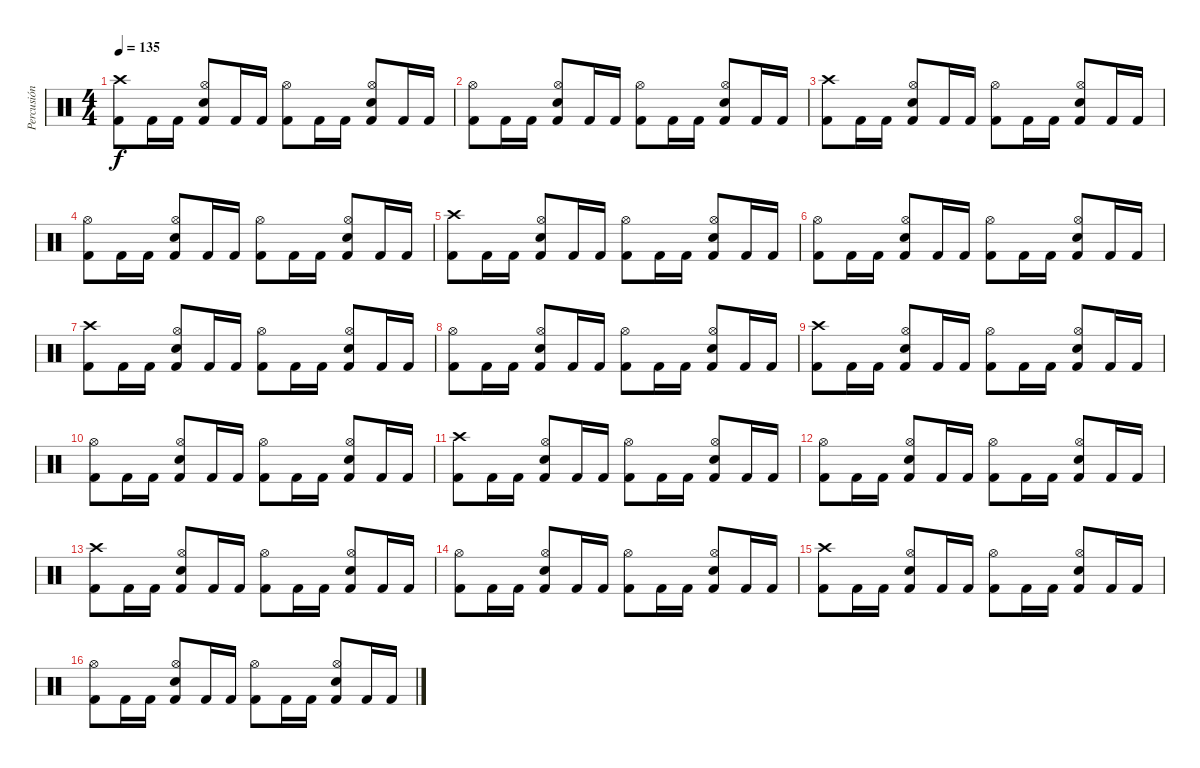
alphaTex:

\track ("Percusión" "Percusión") {instrument percussion}
\staff {score}
\articulation defaults
\ts (4 4)
\tempo 135
\clef neutral
\ks c
("Kick (hit) 2" "Crash high (hit)").8{dy f} "Kick (hit) 2".16 "Kick (hit) 2".16 ("Kick (hit) 2" "Hi-Hat (open)" "Snare (hit) 2").8 "Kick (hit) 2".16 "Kick (hit) 2".16 ("Kick (hit) 2" "Hi-Hat (open)").8 "Kick (hit) 2".16 "Kick (hit) 2".16 ("Kick (hit) 2" "Hi-Hat (open)" "Snare (hit) 2").8 "Kick (hit) 2".16 "Kick (hit) 2".16 |
("Kick (hit) 2" "Hi-Hat (open)").8 "Kick (hit) 2".16 "Kick (hit) 2".16 ("Kick (hit) 2" "Hi-Hat (open)" "Snare (hit) 2").8 "Kick (hit) 2".16 "Kick (hit) 2".16 ("Kick (hit) 2" "Hi-Hat (open)").8 "Kick (hit) 2".16 "Kick (hit) 2".16 ("Kick (hit) 2" "Hi-Hat (open)" "Snare (hit) 2").8 "Kick (hit) 2".16 "Kick (hit) 2".16 |
("Kick (hit) 2" "Crash high (hit)").8 "Kick (hit) 2".16 "Kick (hit) 2".16 ("Kick (hit) 2" "Hi-Hat (open)" "Snare (hit) 2").8 "Kick (hit) 2".16 "Kick (hit) 2".16 ("Kick (hit) 2" "Hi-Hat (open)").8 "Kick (hit) 2".16 "Kick (hit) 2".16 ("Kick (hit) 2" "Hi-Hat (open)" "Snare (hit) 2").8 "Kick (hit) 2".16 "Kick (hit) 2".16 |
("Kick (hit) 2" "Hi-Hat (open)").8 "Kick (hit) 2".16 "Kick (hit) 2".16 ("Kick (hit) 2" "Hi-Hat (open)" "Snare (hit) 2").8 "Kick (hit) 2".16 "Kick (hit) 2".16 ("Kick (hit) 2" "Hi-Hat (open)").8 "Kick (hit) 2".16 "Kick (hit) 2".16 ("Kick (hit) 2" "Hi-Hat (open)" "Snare (hit) 2").8 "Kick (hit) 2".16 "Kick (hit) 2".16 |
("Kick (hit) 2" "Crash high (hit)").8 "Kick (hit) 2".16 "Kick (hit) 2".16 ("Kick (hit) 2" "Hi-Hat (open)" "Snare (hit) 2").8 "Kick (hit) 2".16 "Kick (hit) 2".16 ("Kick (hit) 2" "Hi-Hat (open)").8 "Kick (hit) 2".16 "Kick (hit) 2".16 ("Kick (hit) 2" "Hi-Hat (open)" "Snare (hit) 2").8 "Kick (hit) 2".16 "Kick (hit) 2".16 |
("Kick (hit) 2" "Hi-Hat (open)").8 "Kick (hit) 2".16 "Kick (hit) 2".16 ("Kick (hit) 2" "Hi-Hat (open)" "Snare (hit) 2").8 "Kick (hit) 2".16 "Kick (hit) 2".16 ("Kick (hit) 2" "Hi-Hat (open)").8 "Kick (hit) 2".16 "Kick (hit) 2".16 ("Kick (hit) 2" "Hi-Hat (open)" "Snare (hit) 2").8 "Kick (hit) 2".16 "Kick (hit) 2".16 |
("Kick (hit) 2" "Crash high (hit)").8 "Kick (hit) 2".16 "Kick (hit) 2".16 ("Kick (hit) 2" "Hi-Hat (open)" "Snare (hit) 2").8 "Kick (hit) 2".16 "Kick (hit) 2".16 ("Kick (hit) 2" "Hi-Hat (open)").8 "Kick (hit) 2".16 "Kick (hit) 2".16 ("Kick (hit) 2" "Hi-Hat (open)" "Snare (hit) 2").8 "Kick (hit) 2".16 "Kick (hit) 2".16 |
("Kick (hit) 2" "Hi-Hat (open)").8 "Kick (hit) 2".16 "Kick (hit) 2".16 ("Kick (hit) 2" "Hi-Hat (open)" "Snare (hit) 2").8 "Kick (hit) 2".16 "Kick (hit) 2".16 ("Kick (hit) 2" "Hi-Hat (open)").8 "Kick (hit) 2".16 "Kick (hit) 2".16 ("Kick (hit) 2" "Hi-Hat (open)" "Snare (hit) 2").8 "Kick (hit) 2".16 "Kick (hit) 2".16 |
("Kick (hit) 2" "Crash high (hit)").8 "Kick (hit) 2".16 "Kick (hit) 2".16 ("Kick (hit) 2" "Hi-Hat (open)" "Snare (hit) 2").8 "Kick (hit) 2".16 "Kick (hit) 2".16 ("Kick (hit) 2" "Hi-Hat (open)").8 "Kick (hit) 2".16 "Kick (hit) 2".16 ("Kick (hit) 2" "Hi-Hat (open)" "Snare (hit) 2").8 "Kick (hit) 2".16 "Kick (hit) 2".16 |
("Kick (hit) 2" "Hi-Hat (open)").8 "Kick (hit) 2".16 "Kick (hit) 2".16 ("Kick (hit) 2" "Hi-Hat (open)" "Snare (hit) 2").8 "Kick (hit) 2".16 "Kick (hit) 2".16 ("Kick (hit) 2" "Hi-Hat (open)").8 "Kick (hit) 2".16 "Kick (hit) 2".16 ("Kick (hit) 2" "Hi-Hat (open)" "Snare (hit) 2").8 "Kick (hit) 2".16 "Kick (hit) 2".16 |
("Kick (hit) 2" "Crash high (hit)").8 "Kick (hit) 2".16 "Kick (hit) 2".16 ("Kick (hit) 2" "Hi-Hat (open)" "Snare (hit) 2").8 "Kick (hit) 2".16 "Kick (hit) 2".16 ("Kick (hit) 2" "Hi-Hat (open)").8 "Kick (hit) 2".16 "Kick (hit) 2".16 ("Kick (hit) 2" "Hi-Hat (open)" "Snare (hit) 2").8 "Kick (hit) 2".16 "Kick (hit) 2".16 |
("Kick (hit) 2" "Hi-Hat (open)").8 "Kick (hit) 2".16 "Kick (hit) 2".16 ("Kick (hit) 2" "Hi-Hat (open)" "Snare (hit) 2").8 "Kick (hit) 2".16 "Kick (hit) 2".16 ("Kick (hit) 2" "Hi-Hat (open)").8 "Kick (hit) 2".16 "Kick (hit) 2".16 ("Kick (hit) 2" "Hi-Hat (open)" "Snare (hit) 2").8 "Kick (hit) 2".16 "Kick (hit) 2".16 |
("Kick (hit) 2" "Crash high (hit)").8 "Kick (hit) 2".16 "Kick (hit) 2".16 ("Kick (hit) 2" "Hi-Hat (open)" "Snare (hit) 2").8 "Kick (hit) 2".16 "Kick (hit) 2".16 ("Kick (hit) 2" "Hi-Hat (open)").8 "Kick (hit) 2".16 "Kick (hit) 2".16 ("Kick (hit) 2" "Hi-Hat (open)" "Snare (hit) 2").8 "Kick (hit) 2".16 "Kick (hit) 2".16 |
("Kick (hit) 2" "Hi-Hat (open)").8 "Kick (hit) 2".16 "Kick (hit) 2".16 ("Kick (hit) 2" "Hi-Hat (open)" "Snare (hit) 2").8 "Kick (hit) 2".16 "Kick (hit) 2".16 ("Kick (hit) 2" "Hi-Hat (open)").8 "Kick (hit) 2".16 "Kick (hit) 2".16 ("Kick (hit) 2" "Hi-Hat (open)" "Snare (hit) 2").8 "Kick (hit) 2".16 "Kick (hit) 2".16 |
("Kick (hit) 2" "Crash high (hit)").8 "Kick (hit) 2".16 "Kick (hit) 2".16 ("Kick (hit) 2" "Hi-Hat (open)" "Snare (hit) 2").8 "Kick (hit) 2".16 "Kick (hit) 2".16 ("Kick (hit) 2" "Hi-Hat (open)").8 "Kick (hit) 2".16 "Kick (hit) 2".16 ("Kick (hit) 2" "Hi-Hat (open)" "Snare (hit) 2").8 "Kick (hit) 2".16 "Kick (hit) 2".16 |
("Kick (hit) 2" "Hi-Hat (open)").8 "Kick (hit) 2".16 "Kick (hit) 2".16 ("Kick (hit) 2" "Hi-Hat (open)" "Snare (hit) 2").8 "Kick (hit) 2".16 "Kick (hit) 2".16 ("Kick (hit) 2" "Hi-Hat (open)").8 "Kick (hit) 2".16 "Kick (hit) 2".16 ("Kick (hit) 2" "Hi-Hat (open)" "Snare (hit) 2").8 "Kick (hit) 2".16 "Kick (hit) 2".16
